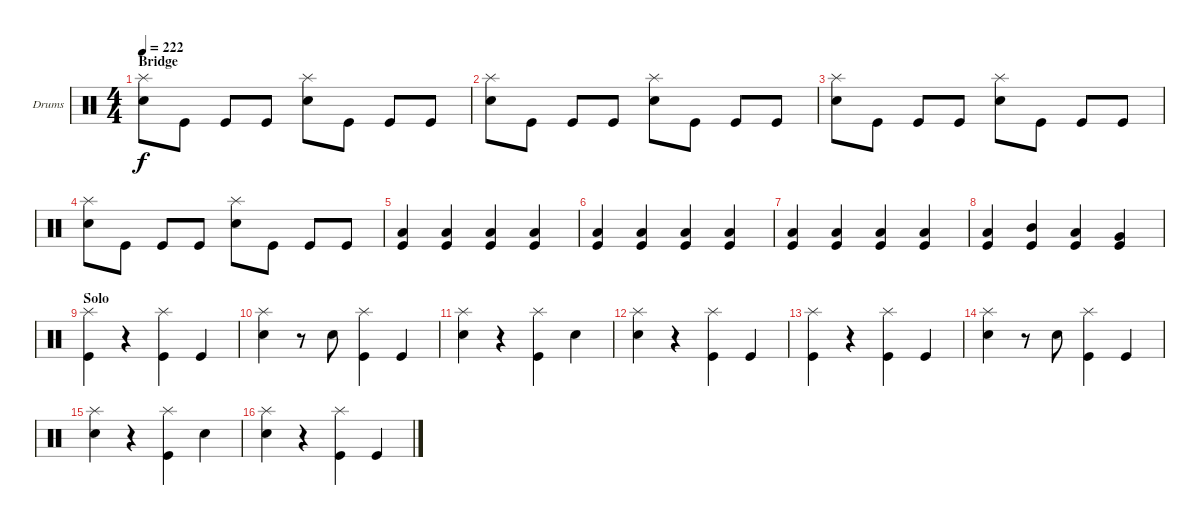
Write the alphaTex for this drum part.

\defaultSystemsLayout 4
\bracketExtendMode groupsimilarinstruments
\firstSystemTrackNameOrientation horizontal
\otherSystemsTrackNameOrientation horizontal
\track ("Drumkit" "Drums") {mute instrument percussion}
\staff {score}
\articulation defaults
\ts (4 4)
\section ("" "Bridge")
\tempo 222
\clef neutral
\ks c
("Splash (hit)" "Snare (hit) 2").8{dy f} "Kick (hit)".8 "Kick (hit)".8 "Kick (hit)".8 ("Splash (hit)" "Snare (hit) 2").8 "Kick (hit)".8 "Kick (hit)".8 "Kick (hit)".8 |
("Splash (hit)" "Snare (hit) 2").8 "Kick (hit)".8 "Kick (hit)".8 "Kick (hit)".8 ("Splash (hit)" "Snare (hit) 2").8 "Kick (hit)".8 "Kick (hit)".8 "Kick (hit)".8 |
("Splash (hit)" "Snare (hit) 2").8 "Kick (hit)".8 "Kick (hit)".8 "Kick (hit)".8 ("Splash (hit)" "Snare (hit) 2").8 "Kick (hit)".8 "Kick (hit)".8 "Kick (hit)".8 |
("Splash (hit)" "Snare (hit) 2").8 "Kick (hit)".8 "Kick (hit)".8 "Kick (hit)".8 ("Splash (hit)" "Snare (hit) 2").8 "Kick (hit)".8 "Kick (hit)".8 "Kick (hit)".8 |
("Kick (hit)" "Low Tom (hit)").4 ("Kick (hit)" "Low Tom (hit)").4 ("Kick (hit)" "Low Tom (hit)").4 ("Kick (hit)" "Low Tom (hit)").4 |
("Kick (hit)" "Low Tom (hit)").4 ("Kick (hit)" "Low Tom (hit)").4 ("Kick (hit)" "Low Tom (hit)").4 ("Kick (hit)" "Low Tom (hit)").4 |
("Kick (hit)" "Low Tom (hit)").4 ("Kick (hit)" "Low Tom (hit)").4 ("Kick (hit)" "Low Tom (hit)").4 ("Kick (hit)" "Low Tom (hit)").4 |
("Kick (hit)" "Low Tom (hit)").4 ("Kick (hit)" "Mid Tom (hit)").4 ("Kick (hit)" "Low Tom (hit)").4 ("Kick (hit)" "Very Low Tom (hit)").4 |
\section ("" "Solo")
("Kick (hit)" "Splash (hit)").4 r.4 ("Kick (hit)" "Splash (hit)").4 "Kick (hit)".4 |
("Snare (hit) 2" "Splash (hit)").4 r.8 "Snare (hit) 2".8 ("Splash (hit)" "Kick (hit)").4 "Kick (hit)".4 |
("Splash (hit)" "Snare (hit) 2").4 r.4 ("Splash (hit)" "Kick (hit)").4 "Snare (hit) 2".4 |
("Snare (hit) 2" "Splash (hit)").4 r.4 ("Splash (hit)" "Kick (hit)").4 "Kick (hit)".4 |
("Kick (hit)" "Splash (hit)").4 r.4 ("Kick (hit)" "Splash (hit)").4 "Kick (hit)".4 |
("Snare (hit) 2" "Splash (hit)").4 r.8 "Snare (hit) 2".8 ("Splash (hit)" "Kick (hit)").4 "Kick (hit)".4 |
("Splash (hit)" "Snare (hit) 2").4 r.4 ("Splash (hit)" "Kick (hit)").4 "Snare (hit) 2".4 |
("Snare (hit) 2" "Splash (hit)").4 r.4 ("Splash (hit)" "Kick (hit)").4 "Kick (hit)".4
